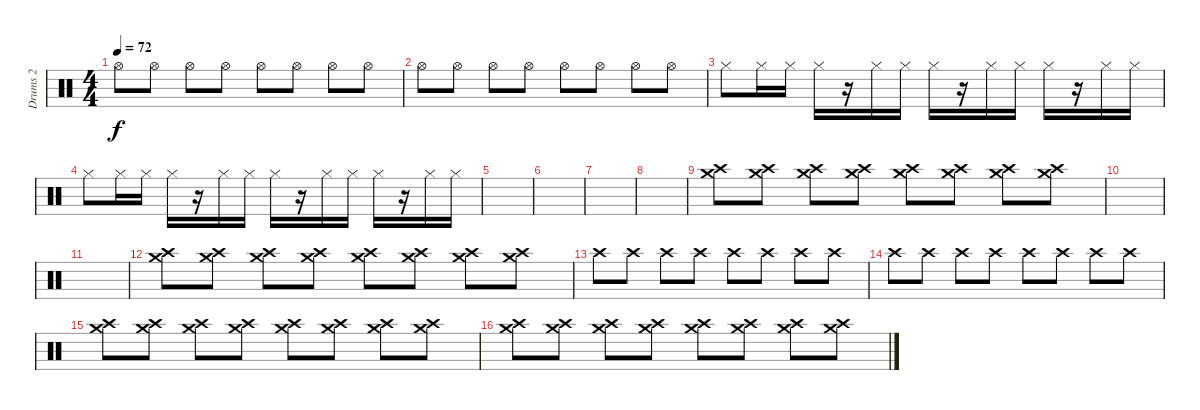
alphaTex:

\track ("Drums 2" "Drums 2") {instrument percussion}
\staff {score}
\articulation defaults
\ts (4 4)
\tempo 72
\clef neutral
\ks c "Hi-Hat (open)".8{dy f} "Hi-Hat (open)".8 "Hi-Hat (open)".8 "Hi-Hat (open)".8 "Hi-Hat (open)".8 "Hi-Hat (open)".8 "Hi-Hat (open)".8 "Hi-Hat (open)".8
|
"Hi-Hat (open)".8 "Hi-Hat (open)".8 "Hi-Hat (open)".8 "Hi-Hat (open)".8 "Hi-Hat (open)".8 "Hi-Hat (open)".8 "Hi-Hat (open)".8 "Hi-Hat (open)".8 |
"Hi-Hat (closed)".8{volume 10} "Hi-Hat (closed)".16 "Hi-Hat (closed)".16 "Hi-Hat (closed)".16 r.16 "Hi-Hat (closed)".16 "Hi-Hat (closed)".16 "Hi-Hat (closed)".16 r.16 "Hi-Hat (closed)".16 "Hi-Hat (closed)".16 "Hi-Hat (closed)".16 r.16 "Hi-Hat (closed)".16 "Hi-Hat (closed)".16 |
"Hi-Hat (closed)".8{volume 10} "Hi-Hat (closed)".16 "Hi-Hat (closed)".16 "Hi-Hat (closed)".16 r.16 "Hi-Hat (closed)".16 "Hi-Hat (closed)".16 "Hi-Hat (closed)".16 r.16 "Hi-Hat (closed)".16 "Hi-Hat (closed)".16 "Hi-Hat (closed)".16 r.16 "Hi-Hat (closed)".16 "Hi-Hat (closed)".16 |
|
|
|
|
("Crash high (hit)" "Crash medium (hit)").8 ("Crash high (hit)" "Crash medium (hit)").8 ("Crash high (hit)" "Crash medium (hit)").8 ("Crash high (hit)" "Crash medium (hit)").8 ("Crash high (hit)" "Crash medium (hit)").8 ("Crash high (hit)" "Crash medium (hit)").8 ("Crash high (hit)" "Crash medium (hit)").8 ("Crash high (hit)" "Crash medium (hit)").8 |
|
|
("Crash high (hit)" "Crash medium (hit)").8 ("Crash high (hit)" "Crash medium (hit)").8 ("Crash high (hit)" "Crash medium (hit)").8 ("Crash high (hit)" "Crash medium (hit)").8 ("Crash high (hit)" "Crash medium (hit)").8 ("Crash high (hit)" "Crash medium (hit)").8 ("Crash high (hit)" "Crash medium (hit)").8 ("Crash high (hit)" "Crash medium (hit)").8 |
"Crash high (hit)".8 "Crash high (hit)".8 "Crash high (hit)".8 "Crash high (hit)".8 "Crash high (hit)".8 "Crash high (hit)".8 "Crash high (hit)".8 "Crash high (hit)".8 |
"Crash high (hit)".8 "Crash high (hit)".8 "Crash high (hit)".8 "Crash high (hit)".8 "Crash high (hit)".8 "Crash high (hit)".8 "Crash high (hit)".8 "Crash high (hit)".8 |
("Crash high (hit)" "Crash medium (hit)").8 ("Crash high (hit)" "Crash medium (hit)").8 ("Crash high (hit)" "Crash medium (hit)").8 ("Crash high (hit)" "Crash medium (hit)").8 ("Crash high (hit)" "Crash medium (hit)").8 ("Crash high (hit)" "Crash medium (hit)").8 ("Crash high (hit)" "Crash medium (hit)").8 ("Crash high (hit)" "Crash medium (hit)").8 |
("Crash high (hit)" "Crash medium (hit)").8 ("Crash high (hit)" "Crash medium (hit)").8 ("Crash high (hit)" "Crash medium (hit)").8 ("Crash high (hit)" "Crash medium (hit)").8 ("Crash high (hit)" "Crash medium (hit)").8 ("Crash high (hit)" "Crash medium (hit)").8 ("Crash high (hit)" "Crash medium (hit)").8 ("Crash high (hit)" "Crash medium (hit)").8
